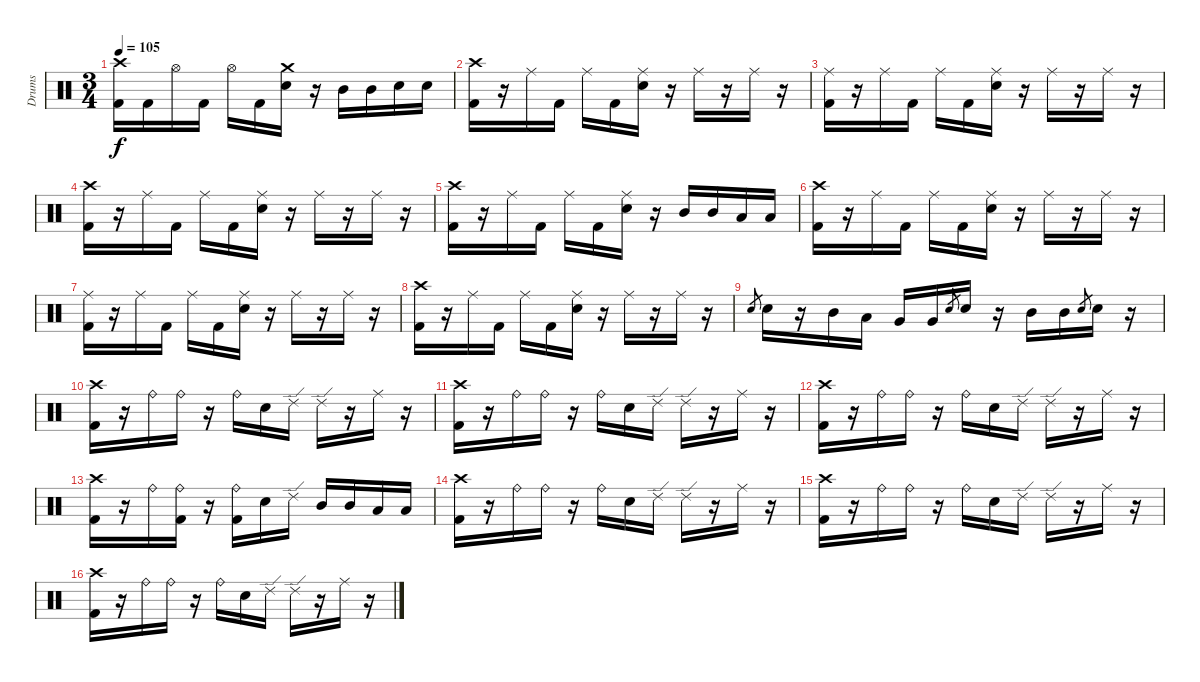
\track ("Drums" "Drums") {instrument percussion}
\staff {score}
\articulation defaults
\ts (3 4)
\tempo 105
\clef neutral
\ks c
("Crash high (hit)" "Kick (hit) 2").16{dy f} "Kick (hit) 2".16 "Hi-Hat (open)".16 "Kick (hit) 2".16 "Hi-Hat (open)".16 "Kick (hit) 2".16 ("Crash medium (hit)" "Electric Snare (hit)").16 r.16 "Mid Tom (hit)".16 "Mid Tom (hit)".16 "Electric Snare (hit)".16 "Electric Snare (hit)".16 |
("Crash high (hit)" "Kick (hit) 2").16 r.16 "Ride (middle)".16 "Kick (hit) 2".16 "Ride (middle)".16 "Kick (hit) 2".16 ("Ride (middle)" "Electric Snare (hit)").16 r.16 "Ride (middle)".16 r.16 "Ride (middle)".16 r.16 |
("Ride (middle)" "Kick (hit) 2").16 r.16 "Ride (middle)".16 "Kick (hit) 2".16 "Ride (middle)".16 "Kick (hit) 2".16 ("Ride (middle)" "Electric Snare (hit)").16 r.16 "Ride (middle)".16 r.16 "Ride (middle)".16 r.16 |
("Crash high (hit)" "Kick (hit) 2").16 r.16 "Ride (middle)".16 "Kick (hit) 2".16 "Ride (middle)".16 "Kick (hit) 2".16 ("Ride (middle)" "Electric Snare (hit)").16 r.16 "Ride (middle)".16 r.16 "Ride (middle)".16 r.16 |
("Crash high (hit)" "Kick (hit) 2").16 r.16 "Ride (middle)".16 "Kick (hit) 2".16 "Ride (middle)".16 "Kick (hit) 2".16 ("Ride (middle)" "Electric Snare (hit)").16 r.16 "Mid Tom (hit)".16 "Mid Tom (hit)".16 "Low Tom (hit)".16 "Low Tom (hit)".16 |
("Crash high (hit)" "Kick (hit) 2").16 r.16 "Ride (middle)".16 "Kick (hit) 2".16 "Ride (middle)".16 "Kick (hit) 2".16 ("Ride (middle)" "Electric Snare (hit)").16 r.16 "Ride (middle)".16 r.16 "Ride (middle)".16 r.16 |
("Ride (middle)" "Kick (hit) 2").16 r.16 "Ride (middle)".16 "Kick (hit) 2".16 "Ride (middle)".16 "Kick (hit) 2".16 ("Ride (middle)" "Electric Snare (hit)").16 r.16 "Ride (middle)".16 r.16 "Ride (middle)".16 r.16 |
("Crash high (hit)" "Kick (hit) 2").16 r.16 "Ride (middle)".16 "Kick (hit) 2".16 "Ride (middle)".16 "Kick (hit) 2".16 ("Ride (middle)" "Electric Snare (hit)").16 r.16 "Ride (middle)".16 r.16 "Ride (middle)".16 r.16 |
"Electric Snare (hit)".8{gr} "Electric Snare (hit)".16 r.16 "Mid Tom (hit)".16 "Low Tom (hit)".16 "Very Low Tom (hit)".16 "Very Low Tom (hit)".16 "Electric Snare (hit)".8{gr} "Electric Snare (hit)".16 r.16 "Mid Tom (hit)".16 "Mid Tom (hit)".16 "Electric Snare (hit)".8{gr} "Electric Snare (hit)".16 r.16 |
("Crash high (hit)" "Kick (hit) 2").16 r.16 "Ride (bell)".16 "Ride (bell)".16 r.16 "Ride (bell)".16 "Electric Snare (hit)".16 "Ride (edge) 2".16 "Ride (edge) 2".16 r.16 "Ride (middle)".16 r.16 |
("Crash high (hit)" "Kick (hit) 2").16 r.16 "Ride (bell)".16 "Ride (bell)".16 r.16 "Ride (bell)".16 "Electric Snare (hit)".16 "Ride (edge) 2".16 "Ride (edge) 2".16 r.16 "Ride (middle)".16 r.16 |
("Crash high (hit)" "Kick (hit) 2").16 r.16 "Ride (bell)".16 "Ride (bell)".16 r.16 "Ride (bell)".16 "Electric Snare (hit)".16 "Ride (edge) 2".16 "Ride (edge) 2".16 r.16 "Ride (middle)".16 r.16 |
("Crash high (hit)" "Kick (hit) 2").16 r.16 "Ride (bell)".16 ("Ride (bell)" "Kick (hit) 2").16 r.16 ("Ride (bell)" "Kick (hit) 2").16 "Electric Snare (hit)".16 "Ride (edge) 2".16 "Mid Tom (hit)".16 "Mid Tom (hit)".16 "Low Tom (hit)".16 "Low Tom (hit)".16 |
("Crash high (hit)" "Kick (hit) 2").16 r.16 "Ride (bell)".16 "Ride (bell)".16 r.16 "Ride (bell)".16 "Electric Snare (hit)".16 "Ride (edge) 2".16 "Ride (edge) 2".16 r.16 "Ride (middle)".16 r.16 |
("Crash high (hit)" "Kick (hit) 2").16 r.16 "Ride (bell)".16 "Ride (bell)".16 r.16 "Ride (bell)".16 "Electric Snare (hit)".16 "Ride (edge) 2".16 "Ride (edge) 2".16 r.16 "Ride (middle)".16 r.16 |
("Crash high (hit)" "Kick (hit) 2").16 r.16 "Ride (bell)".16 "Ride (bell)".16 r.16 "Ride (bell)".16 "Electric Snare (hit)".16 "Ride (edge) 2".16 "Ride (edge) 2".16 r.16 "Ride (middle)".16 r.16
